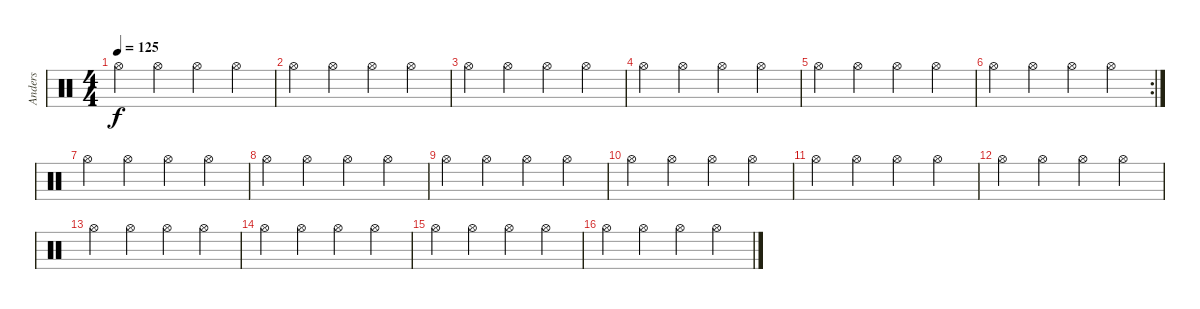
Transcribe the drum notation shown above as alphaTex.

\track ("Anders" "Anders") {instrument percussion}
\staff {score}
\articulation defaults
\ts (4 4)
\tempo 125
\clef neutral
\ks c "Hi-Hat (open)".4{dy f} "Hi-Hat (open)".4 "Hi-Hat (open)".4 "Hi-Hat (open)".4
|
"Hi-Hat (open)".4 "Hi-Hat (open)".4 "Hi-Hat (open)".4 "Hi-Hat (open)".4 |
"Hi-Hat (open)".4 "Hi-Hat (open)".4 "Hi-Hat (open)".4 "Hi-Hat (open)".4 |
"Hi-Hat (open)".4 "Hi-Hat (open)".4 "Hi-Hat (open)".4 "Hi-Hat (open)".4 |
"Hi-Hat (open)".4 "Hi-Hat (open)".4 "Hi-Hat (open)".4 "Hi-Hat (open)".4 |
\rc 2 "Hi-Hat (open)".4 "Hi-Hat (open)".4 "Hi-Hat (open)".4 "Hi-Hat (open)".4
|
"Hi-Hat (open)".4 "Hi-Hat (open)".4 "Hi-Hat (open)".4 "Hi-Hat (open)".4 |
"Hi-Hat (open)".4 "Hi-Hat (open)".4 "Hi-Hat (open)".4 "Hi-Hat (open)".4 |
"Hi-Hat (open)".4 "Hi-Hat (open)".4 "Hi-Hat (open)".4 "Hi-Hat (open)".4 |
"Hi-Hat (open)".4 "Hi-Hat (open)".4 "Hi-Hat (open)".4 "Hi-Hat (open)".4 |
"Hi-Hat (open)".4 "Hi-Hat (open)".4 "Hi-Hat (open)".4 "Hi-Hat (open)".4 |
"Hi-Hat (open)".4 "Hi-Hat (open)".4 "Hi-Hat (open)".4 "Hi-Hat (open)".4 |
"Hi-Hat (open)".4 "Hi-Hat (open)".4 "Hi-Hat (open)".4 "Hi-Hat (open)".4 |
"Hi-Hat (open)".4 "Hi-Hat (open)".4 "Hi-Hat (open)".4 "Hi-Hat (open)".4 |
"Hi-Hat (open)".4 "Hi-Hat (open)".4 "Hi-Hat (open)".4 "Hi-Hat (open)".4 |
"Hi-Hat (open)".4 "Hi-Hat (open)".4 "Hi-Hat (open)".4 "Hi-Hat (open)".4
